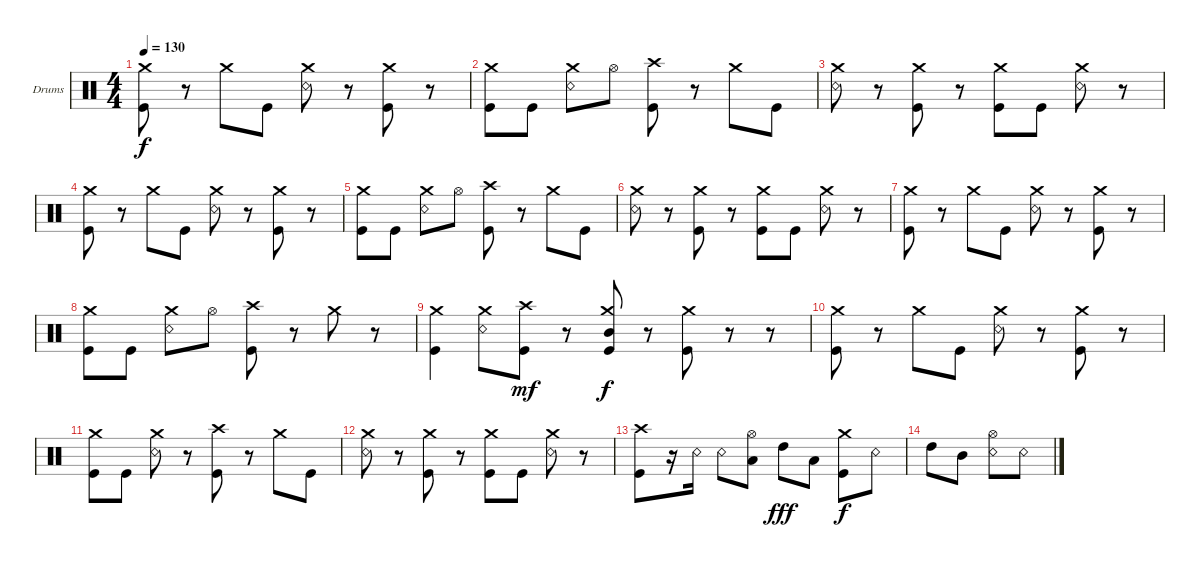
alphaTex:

\bracketExtendMode groupsimilarinstruments
\firstSystemTrackNameOrientation horizontal
\otherSystemsTrackNameOrientation horizontal
\track ("Drumkit" "Drums") {instrument percussion}
\staff {score}
\articulation defaults
\ts (4 4)
\tempo 130
\clef neutral
\ks c
("Kick (hit)" "Crash medium (hit)").8{dy f} r.8 "Crash medium (hit)".8 "Kick (hit)".8 ("Snare (rim shot)" "Crash medium (hit)").8 r.8 ("Kick (hit)" "Crash medium (hit)").8 r.8 |
("Kick (hit)" "Crash medium (hit)").8 "Kick (hit)".8 ("Snare (rim shot)" "Crash medium (hit)").8 "Hi-Hat (open)".8 ("Kick (hit)" "Crash high (hit)").8 r.8 "Crash medium (hit)".8 "Kick (hit)".8 |
("Snare (rim shot)" "Crash medium (hit)").8 r.8 ("Kick (hit)" "Crash medium (hit)").8 r.8 ("Kick (hit)" "Crash medium (hit)").8 "Kick (hit)".8 ("Snare (rim shot)" "Crash medium (hit)").8 r.8 |
("Kick (hit)" "Crash medium (hit)").8 r.8 "Crash medium (hit)".8 "Kick (hit)".8 ("Snare (rim shot)" "Crash medium (hit)").8 r.8 ("Kick (hit)" "Crash medium (hit)").8 r.8 |
("Kick (hit)" "Crash medium (hit)").8 "Kick (hit)".8 ("Snare (rim shot)" "Crash medium (hit)").8 "Hi-Hat (open)".8 ("Kick (hit)" "Crash high (hit)").8 r.8 "Crash medium (hit)".8 "Kick (hit)".8 |
("Snare (rim shot)" "Crash medium (hit)").8 r.8 ("Kick (hit)" "Crash medium (hit)").8 r.8 ("Kick (hit)" "Crash medium (hit)").8 "Kick (hit)".8 ("Snare (rim shot)" "Crash medium (hit)").8 r.8 |
("Kick (hit)" "Crash medium (hit)").8 r.8 "Crash medium (hit)".8 "Kick (hit)".8 ("Snare (rim shot)" "Crash medium (hit)").8 r.8 ("Kick (hit)" "Crash medium (hit)").8 r.8 |
("Kick (hit)" "Crash medium (hit)").8 "Kick (hit)".8 ("Snare (rim shot)" "Crash medium (hit)").8 "Hi-Hat (open)".8 ("Kick (hit)" "Crash high (hit)").8 r.8 "Crash medium (hit)".8 r.8 |
("Kick (hit)" "Crash medium (hit)").4 ("Crash medium (hit)" "Snare (rim shot)").8 ("Kick (hit)" "Crash high (hit)").8{dy mf} r.8 ("Kick (hit)" "Crash medium (hit)" "Mid Tom (hit)").8{dy f} r.8 ("Kick (hit)" "Crash medium (hit)").8 r.8 r.8 |
("Kick (hit)" "Crash medium (hit)").8 r.8 "Crash medium (hit)".8 "Kick (hit)".8 ("Snare (rim shot)" "Crash medium (hit)").8 r.8 ("Kick (hit)" "Crash medium (hit)").8 r.8 |
("Kick (hit)" "Crash medium (hit)").8 "Kick (hit)".8 ("Snare (rim shot)" "Crash medium (hit)").8 r.8 ("Kick (hit)" "Crash high (hit)").8 r.8 "Crash medium (hit)".8 "Kick (hit)".8 |
("Snare (rim shot)" "Crash medium (hit)").8 r.8 ("Kick (hit)" "Crash medium (hit)").8 r.8 ("Kick (hit)" "Crash medium (hit)").8 "Kick (hit)".8 ("Snare (rim shot)" "Crash medium (hit)").8 r.8 |
("Kick (hit)" "Crash high (hit)").8 r.16 "Snare (rim shot)".16 "Snare (rim shot)".8 ("Low Tom (hit)" "Hi-Hat (open)").8 "High Tom (hit)".8{dy fff} "Low Tom (hit)".8 ("Kick (hit)" "Crash medium (hit)").8{dy f} "Snare (rim shot)".8 |
"High Tom (hit)".8 "Mid Tom (hit)".8 ("Snare (rim shot)" "Hi-Hat (open)").8 "Snare (rim shot)".8
